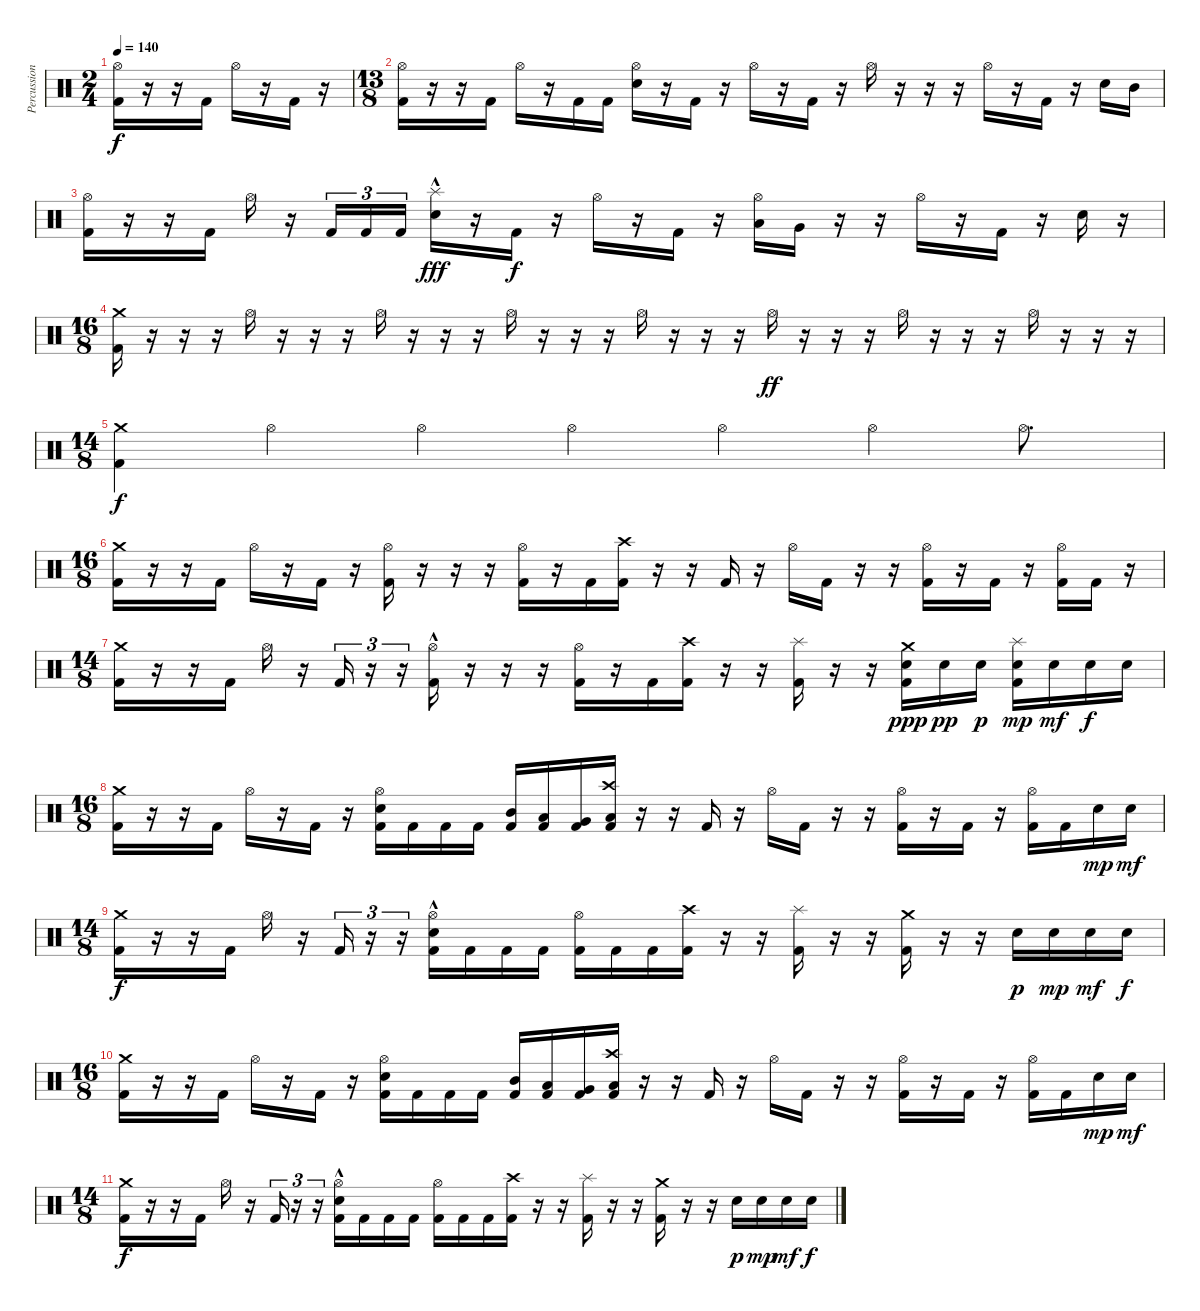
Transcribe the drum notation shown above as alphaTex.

\track ("Percussion" "Percussion") {instrument percussion}
\staff {score}
\articulation defaults
\ts (2 4)
\tempo 140
\clef neutral
\ks c
("Hi-Hat (open)" "Kick (hit) 2").16{dy f} r.16 r.16 "Kick (hit) 2".16 "Hi-Hat (open)".16 r.16 "Kick (hit) 2".16 r.16 |
\ts (13 8)
("Hi-Hat (open)" "Kick (hit) 2").16 r.16 r.16 "Kick (hit) 2".16 "Hi-Hat (open)".16 r.16 "Kick (hit) 2".16 "Kick (hit) 2".16 ("Hi-Hat (open)" "Electric Snare (hit)").16 r.16 "Kick (hit) 2".16 r.16 "Hi-Hat (open)".16 r.16 "Kick (hit) 2".16 r.16 "Hi-Hat (open)".16 r.16 r.16 r.16 "Hi-Hat (open)".16 r.16 "Kick (hit) 2".16 r.16 "Electric Snare (hit)".16 "Mid Tom (hit)".16 |
("Hi-Hat (open)" "Kick (hit) 2").16 r.16 r.16 "Kick (hit) 2".16 "Hi-Hat (open)".16 r.16 "Kick (hit) 2".16{tu (3 2)} "Kick (hit) 2".16{tu (3 2)} "Kick (hit) 2".16{tu (3 2)} ("Splash (hit)"{hac} "Electric Snare (hit)").16{dy fff} r.16 "Kick (hit) 2".16{dy f} r.16 "Hi-Hat (open)".16 r.16 "Kick (hit) 2".16 r.16 ("Hi-Hat (open)" "Low Tom (hit)").16 "Very Low Tom (hit)".16 r.16 r.16 "Hi-Hat (open)".16 r.16 "Kick (hit) 2".16 r.16 "Electric Snare (hit)".16 r.16 |
\ts (16 8)
("Crash medium (hit)" "Kick (hit) 2").16 r.16 r.16 r.16 "Hi-Hat (open)".16 r.16 r.16 r.16 "Hi-Hat (open)".16 r.16 r.16 r.16 "Hi-Hat (open)".16 r.16 r.16 r.16 "Hi-Hat (open)".16 r.16 r.16 r.16 "Hi-Hat (open)".16{dy ff} r.16 r.16 r.16 "Hi-Hat (open)".16 r.16 r.16 r.16 "Hi-Hat (open)".16 r.16 r.16 r.16 |
\ts (14 8)
("Crash medium (hit)" "Kick (hit) 2").4{dy f} "Hi-Hat (open)".4 "Hi-Hat (open)".4 "Hi-Hat (open)".4 "Hi-Hat (open)".4 "Hi-Hat (open)".4 "Hi-Hat (open)".8{d} |
\ts (16 8)
("Crash medium (hit)" "Kick (hit) 2").16 r.16 r.16 "Kick (hit) 2".16 "Hi-Hat (open)".16 r.16 "Kick (hit) 2".16 r.16 ("Hi-Hat (open)" "Kick (hit) 2").16 r.16 r.16 r.16 ("Hi-Hat (open)" "Kick (hit) 2").16 r.16 "Kick (hit) 2".16 ("Crash high (hit)" "Kick (hit) 2").16 r.16 r.16 "Kick (hit) 2".16 r.16 "Hi-Hat (open)".16 "Kick (hit) 2".16 r.16 r.16 ("Hi-Hat (open)" "Kick (hit) 2").16 r.16 "Kick (hit) 2".16 r.16 ("Hi-Hat (open)" "Kick (hit) 2").16 "Kick (hit) 2".16 r.16 |
\ts (14 8)
("Crash medium (hit)" "Kick (hit) 2").16 r.16 r.16 "Kick (hit) 2".16 "Hi-Hat (open)".16 r.16 "Kick (hit) 2".16{tu (3 2)} r.16{tu (3 2)} r.16{tu (3 2)} ("Hi-Hat (open)"{hac} "Kick (hit) 2").16 r.16 r.16 r.16 ("Hi-Hat (open)" "Kick (hit) 2").16 r.16 "Kick (hit) 2".16 ("Crash high (hit)" "Kick (hit) 2").16 r.16 r.16 ("Splash (hit)" "Kick (hit) 2").16 r.16 r.16 ("Crash medium (hit)" "Electric Snare (hit)" "Kick (hit) 2").16{dy ppp} "Electric Snare (hit)".16{dy pp} "Electric Snare (hit)".16{dy p} ("Splash (hit)" "Electric Snare (hit)" "Kick (hit) 2").16{dy mp} "Electric Snare (hit)".16{dy mf} "Electric Snare (hit)".16{dy f} "Electric Snare (hit)".16 |
\ts (16 8)
("Crash medium (hit)" "Kick (hit) 2").16 r.16 r.16 "Kick (hit) 2".16 "Hi-Hat (open)".16 r.16 "Kick (hit) 2".16 r.16 ("Hi-Hat (open)" "Electric Snare (hit)" "Kick (hit) 2").16 "Kick (hit) 2".16 "Kick (hit) 2".16 "Kick (hit) 2".16 ("Mid Tom (hit)" "Kick (hit) 2").16 ("Low Tom (hit)" "Kick (hit) 2").16 ("Very Low Tom (hit)" "Kick (hit) 2").16 ("Crash high (hit)" "Low Floor Tom (hit)" "Kick (hit) 2").16 r.16 r.16 "Kick (hit) 2".16 r.16 "Hi-Hat (open)".16 "Kick (hit) 2".16 r.16 r.16 ("Hi-Hat (open)" "Kick (hit) 2").16 r.16 "Kick (hit) 2".16 r.16 ("Hi-Hat (open)" "Kick (hit) 2").16 "Kick (hit) 2".16 "Electric Snare (hit)".16{dy mp} "Electric Snare (hit)".16{dy mf} |
\ts (14 8)
("Crash medium (hit)" "Kick (hit) 2").16{dy f} r.16 r.16 "Kick (hit) 2".16 "Hi-Hat (open)".16 r.16 "Kick (hit) 2".16{tu (3 2)} r.16{tu (3 2)} r.16{tu (3 2)} ("Hi-Hat (open)"{hac} "Electric Snare (hit)" "Kick (hit) 2").16 "Kick (hit) 2".16 "Kick (hit) 2".16 "Kick (hit) 2".16 ("Hi-Hat (open)" "Kick (hit) 2").16 "Kick (hit) 2".16 "Kick (hit) 2".16 ("Crash high (hit)" "Kick (hit) 2").16 r.16 r.16 ("Splash (hit)" "Kick (hit) 2").16 r.16 r.16 ("Crash medium (hit)" "Kick (hit) 2").16 r.16 r.16 "Electric Snare (hit)".16{dy p} "Electric Snare (hit)".16{dy mp} "Electric Snare (hit)".16{dy mf} "Electric Snare (hit)".16{dy f} |
\ts (16 8)
("Crash medium (hit)" "Kick (hit) 2").16 r.16 r.16 "Kick (hit) 2".16 "Hi-Hat (open)".16 r.16 "Kick (hit) 2".16 r.16 ("Hi-Hat (open)" "Electric Snare (hit)" "Kick (hit) 2").16 "Kick (hit) 2".16 "Kick (hit) 2".16 "Kick (hit) 2".16 ("Mid Tom (hit)" "Kick (hit) 2").16 ("Low Tom (hit)" "Kick (hit) 2").16 ("Very Low Tom (hit)" "Kick (hit) 2").16 ("Crash high (hit)" "Low Floor Tom (hit)" "Kick (hit) 2").16 r.16 r.16 "Kick (hit) 2".16 r.16 "Hi-Hat (open)".16 "Kick (hit) 2".16 r.16 r.16 ("Hi-Hat (open)" "Kick (hit) 2").16 r.16 "Kick (hit) 2".16 r.16 ("Hi-Hat (open)" "Kick (hit) 2").16 "Kick (hit) 2".16 "Electric Snare (hit)".16{dy mp} "Electric Snare (hit)".16{dy mf} |
\ts (14 8)
("Crash medium (hit)" "Kick (hit) 2").16{dy f} r.16 r.16 "Kick (hit) 2".16 "Hi-Hat (open)".16 r.16 "Kick (hit) 2".16{tu (3 2)} r.16{tu (3 2)} r.16{tu (3 2)} ("Hi-Hat (open)"{hac} "Electric Snare (hit)" "Kick (hit) 2").16 "Kick (hit) 2".16 "Kick (hit) 2".16 "Kick (hit) 2".16 ("Hi-Hat (open)" "Kick (hit) 2").16 "Kick (hit) 2".16 "Kick (hit) 2".16 ("Crash high (hit)" "Kick (hit) 2").16 r.16 r.16 ("Splash (hit)" "Kick (hit) 2").16 r.16 r.16 ("Crash medium (hit)" "Kick (hit) 2").16 r.16 r.16 "Electric Snare (hit)".16{dy p} "Electric Snare (hit)".16{dy mp} "Electric Snare (hit)".16{dy mf} "Electric Snare (hit)".16{dy f}
